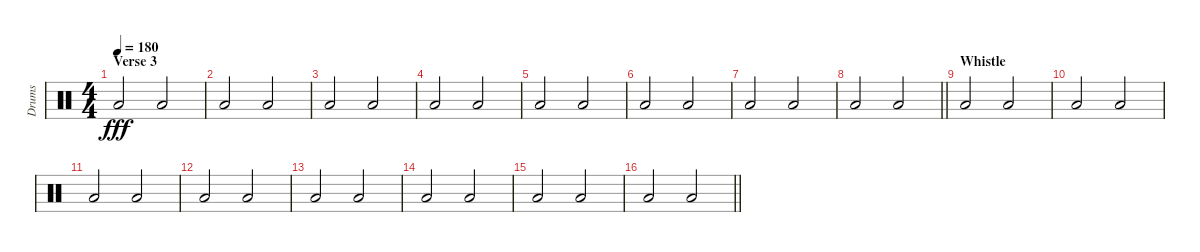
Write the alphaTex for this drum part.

\track ("Drums" "Drums") {instrument percussion}
\staff {score}
\articulation defaults
\ts (4 4)
\section ("" "Verse 3")
\tempo 180
\clef neutral
\ks c "Low Floor Tom (hit)".2{dy fff} "Low Floor Tom (hit)".2
|
"Low Floor Tom (hit)".2 "Low Floor Tom (hit)".2 |
"Low Floor Tom (hit)".2 "Low Floor Tom (hit)".2 |
"Low Floor Tom (hit)".2 "Low Floor Tom (hit)".2 |
"Low Floor Tom (hit)".2 "Low Floor Tom (hit)".2 |
"Low Floor Tom (hit)".2 "Low Floor Tom (hit)".2 |
"Low Floor Tom (hit)".2 "Low Floor Tom (hit)".2 |
\barLineRight lightlight "Low Floor Tom (hit)".2 "Low Floor Tom (hit)".2
|
\section ("" "Whistle")
"Low Floor Tom (hit)".2 "Low Floor Tom (hit)".2 |
"Low Floor Tom (hit)".2 "Low Floor Tom (hit)".2 |
"Low Floor Tom (hit)".2 "Low Floor Tom (hit)".2 |
"Low Floor Tom (hit)".2 "Low Floor Tom (hit)".2 |
"Low Floor Tom (hit)".2 "Low Floor Tom (hit)".2 |
"Low Floor Tom (hit)".2 "Low Floor Tom (hit)".2 |
"Low Floor Tom (hit)".2 "Low Floor Tom (hit)".2 |
\barLineRight lightlight "Low Floor Tom (hit)".2 "Low Floor Tom (hit)".2
